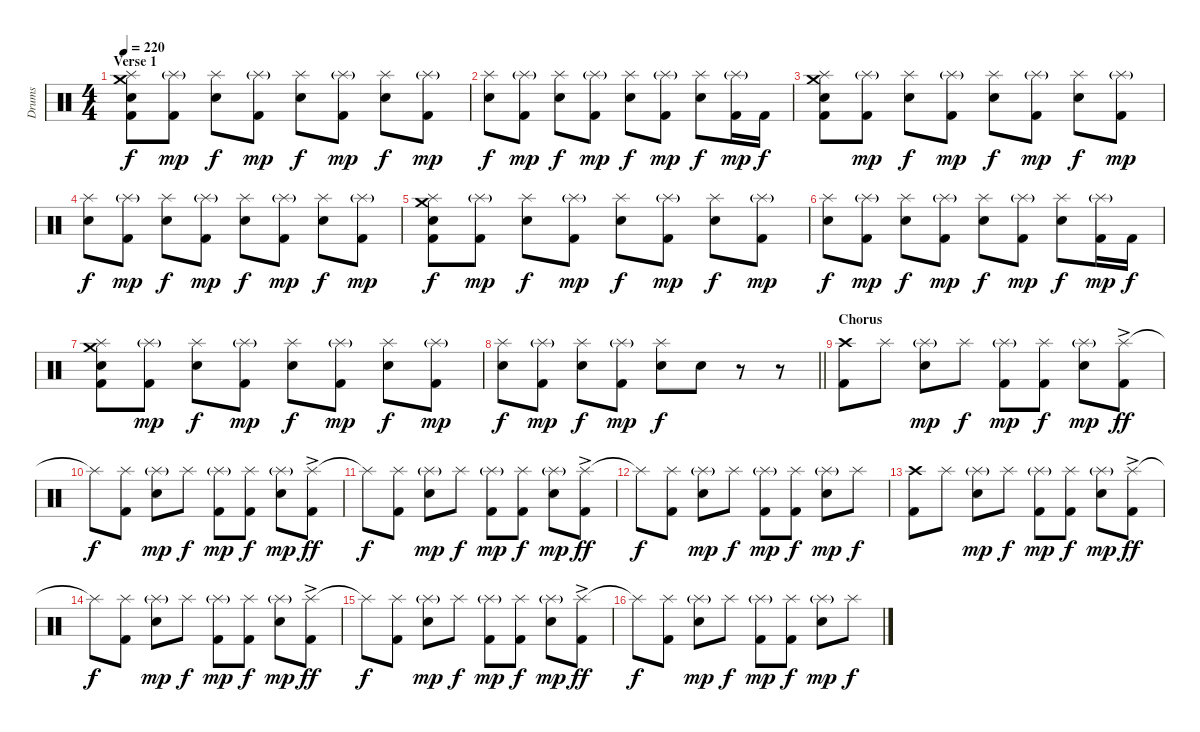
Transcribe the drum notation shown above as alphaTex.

\track ("Drums" "Drums") {instrument percussion}
\staff {score}
\articulation defaults
\ts (4 4)
\section ("" "Verse 1")
\tempo 220
\clef neutral
\ks c
("Crash medium (hit)" "Splash (hit)" "Electric Snare (hit)" "Kick (hit) 2").8{dy f} ("Splash (hit)"{g} "Kick (hit) 2").8{dy mp} ("Splash (hit)" "Electric Snare (hit)").8{dy f} ("Splash (hit)"{g} "Kick (hit) 2").8{dy mp} ("Splash (hit)" "Electric Snare (hit)").8{dy f} ("Splash (hit)"{g} "Kick (hit) 2").8{dy mp} ("Splash (hit)" "Electric Snare (hit)").8{dy f} ("Splash (hit)"{g} "Kick (hit) 2").8{dy mp} |
("Splash (hit)" "Electric Snare (hit)").8{dy f} ("Splash (hit)"{g} "Kick (hit) 2").8{dy mp} ("Splash (hit)" "Electric Snare (hit)").8{dy f} ("Splash (hit)"{g} "Kick (hit) 2").8{dy mp} ("Splash (hit)" "Electric Snare (hit)").8{dy f} ("Splash (hit)"{g} "Kick (hit) 2").8{dy mp} ("Splash (hit)" "Electric Snare (hit)").8{dy f} ("Splash (hit)"{g} "Kick (hit) 2").16{dy mp} "Kick (hit) 2".16{dy f} |
("Crash medium (hit)" "Splash (hit)" "Electric Snare (hit)" "Kick (hit) 2").8 ("Splash (hit)"{g} "Kick (hit) 2").8{dy mp} ("Splash (hit)" "Electric Snare (hit)").8{dy f} ("Splash (hit)"{g} "Kick (hit) 2").8{dy mp} ("Splash (hit)" "Electric Snare (hit)").8{dy f} ("Splash (hit)"{g} "Kick (hit) 2").8{dy mp} ("Splash (hit)" "Electric Snare (hit)").8{dy f} ("Splash (hit)"{g} "Kick (hit) 2").8{dy mp} |
("Splash (hit)" "Electric Snare (hit)").8{dy f} ("Splash (hit)"{g} "Kick (hit) 2").8{dy mp} ("Splash (hit)" "Electric Snare (hit)").8{dy f} ("Splash (hit)"{g} "Kick (hit) 2").8{dy mp} ("Splash (hit)" "Electric Snare (hit)").8{dy f} ("Splash (hit)"{g} "Kick (hit) 2").8{dy mp} ("Splash (hit)" "Electric Snare (hit)").8{dy f} ("Splash (hit)"{g} "Kick (hit) 2").8{dy mp} |
("Crash medium (hit)" "Splash (hit)" "Electric Snare (hit)" "Kick (hit) 2").8{dy f} ("Splash (hit)"{g} "Kick (hit) 2").8{dy mp} ("Splash (hit)" "Electric Snare (hit)").8{dy f} ("Splash (hit)"{g} "Kick (hit) 2").8{dy mp} ("Splash (hit)" "Electric Snare (hit)").8{dy f} ("Splash (hit)"{g} "Kick (hit) 2").8{dy mp} ("Splash (hit)" "Electric Snare (hit)").8{dy f} ("Splash (hit)"{g} "Kick (hit) 2").8{dy mp} |
("Splash (hit)" "Electric Snare (hit)").8{dy f} ("Splash (hit)"{g} "Kick (hit) 2").8{dy mp} ("Splash (hit)" "Electric Snare (hit)").8{dy f} ("Splash (hit)"{g} "Kick (hit) 2").8{dy mp} ("Splash (hit)" "Electric Snare (hit)").8{dy f} ("Splash (hit)"{g} "Kick (hit) 2").8{dy mp} ("Splash (hit)" "Electric Snare (hit)").8{dy f} ("Splash (hit)"{g} "Kick (hit) 2").16{dy mp} "Kick (hit) 2".16{dy f} |
("Crash medium (hit)" "Splash (hit)" "Electric Snare (hit)" "Kick (hit) 2").8 ("Splash (hit)"{g} "Kick (hit) 2").8{dy mp} ("Splash (hit)" "Electric Snare (hit)").8{dy f} ("Splash (hit)"{g} "Kick (hit) 2").8{dy mp} ("Splash (hit)" "Electric Snare (hit)").8{dy f} ("Splash (hit)"{g} "Kick (hit) 2").8{dy mp} ("Splash (hit)" "Electric Snare (hit)").8{dy f} ("Splash (hit)"{g} "Kick (hit) 2").8{dy mp} |
\barLineRight lightlight
("Splash (hit)" "Electric Snare (hit)").8{dy f} ("Splash (hit)"{g} "Kick (hit) 2").8{dy mp} ("Splash (hit)" "Electric Snare (hit)").8{dy f} ("Splash (hit)"{g} "Kick (hit) 2").8{dy mp} ("Splash (hit)" "Electric Snare (hit)").8{dy f} "Electric Snare (hit)".8 r.8 r.8 |
\section ("" "Chorus")
("Crash high (hit)" "Kick (hit) 2").8 "Splash (hit)".8 ("Splash (hit)"{g} "Electric Snare (hit)").8{dy mp} "Splash (hit)".8{dy f} ("Splash (hit)"{g} "Kick (hit) 2").8{dy mp} ("Splash (hit)" "Kick (hit) 2").8{dy f} ("Splash (hit)"{g} "Electric Snare (hit)").8{dy mp} ("Splash (hit)"{ac} "Kick (hit) 2").8{dy ff} |
"Splash (hit)"{t}.8{dy f} ("Splash (hit)" "Kick (hit) 2").8 ("Splash (hit)"{g} "Electric Snare (hit)").8{dy mp} "Splash (hit)".8{dy f} ("Splash (hit)"{g} "Kick (hit) 2").8{dy mp} ("Splash (hit)" "Kick (hit) 2").8{dy f} ("Splash (hit)"{g} "Electric Snare (hit)").8{dy mp} ("Splash (hit)"{ac} "Kick (hit) 2").8{dy ff} |
"Splash (hit)"{t}.8{dy f} ("Splash (hit)" "Kick (hit) 2").8 ("Splash (hit)"{g} "Electric Snare (hit)").8{dy mp} "Splash (hit)".8{dy f} ("Splash (hit)"{g} "Kick (hit) 2").8{dy mp} ("Splash (hit)" "Kick (hit) 2").8{dy f} ("Splash (hit)"{g} "Electric Snare (hit)").8{dy mp} ("Splash (hit)"{ac} "Kick (hit) 2").8{dy ff} |
"Splash (hit)"{t}.8{dy f} ("Splash (hit)" "Kick (hit) 2").8 ("Splash (hit)"{g} "Electric Snare (hit)").8{dy mp} "Splash (hit)".8{dy f} ("Splash (hit)"{g} "Kick (hit) 2").8{dy mp} ("Splash (hit)" "Kick (hit) 2").8{dy f} ("Splash (hit)"{g} "Electric Snare (hit)").8{dy mp} "Splash (hit)".8{dy f} |
("Crash high (hit)" "Kick (hit) 2").8 "Splash (hit)".8 ("Splash (hit)"{g} "Electric Snare (hit)").8{dy mp} "Splash (hit)".8{dy f} ("Splash (hit)"{g} "Kick (hit) 2").8{dy mp} ("Splash (hit)" "Kick (hit) 2").8{dy f} ("Splash (hit)"{g} "Electric Snare (hit)").8{dy mp} ("Splash (hit)"{ac} "Kick (hit) 2").8{dy ff} |
"Splash (hit)"{t}.8{dy f} ("Splash (hit)" "Kick (hit) 2").8 ("Splash (hit)"{g} "Electric Snare (hit)").8{dy mp} "Splash (hit)".8{dy f} ("Splash (hit)"{g} "Kick (hit) 2").8{dy mp} ("Splash (hit)" "Kick (hit) 2").8{dy f} ("Splash (hit)"{g} "Electric Snare (hit)").8{dy mp} ("Splash (hit)"{ac} "Kick (hit) 2").8{dy ff} |
"Splash (hit)"{t}.8{dy f} ("Splash (hit)" "Kick (hit) 2").8 ("Splash (hit)"{g} "Electric Snare (hit)").8{dy mp} "Splash (hit)".8{dy f} ("Splash (hit)"{g} "Kick (hit) 2").8{dy mp} ("Splash (hit)" "Kick (hit) 2").8{dy f} ("Splash (hit)"{g} "Electric Snare (hit)").8{dy mp} ("Splash (hit)"{ac} "Kick (hit) 2").8{dy ff} |
"Splash (hit)"{t}.8{dy f} ("Splash (hit)" "Kick (hit) 2").8 ("Splash (hit)"{g} "Electric Snare (hit)").8{dy mp} "Splash (hit)".8{dy f} ("Splash (hit)"{g} "Kick (hit) 2").8{dy mp} ("Splash (hit)" "Kick (hit) 2").8{dy f} ("Splash (hit)"{g} "Electric Snare (hit)").8{dy mp} "Splash (hit)".8{dy f}
